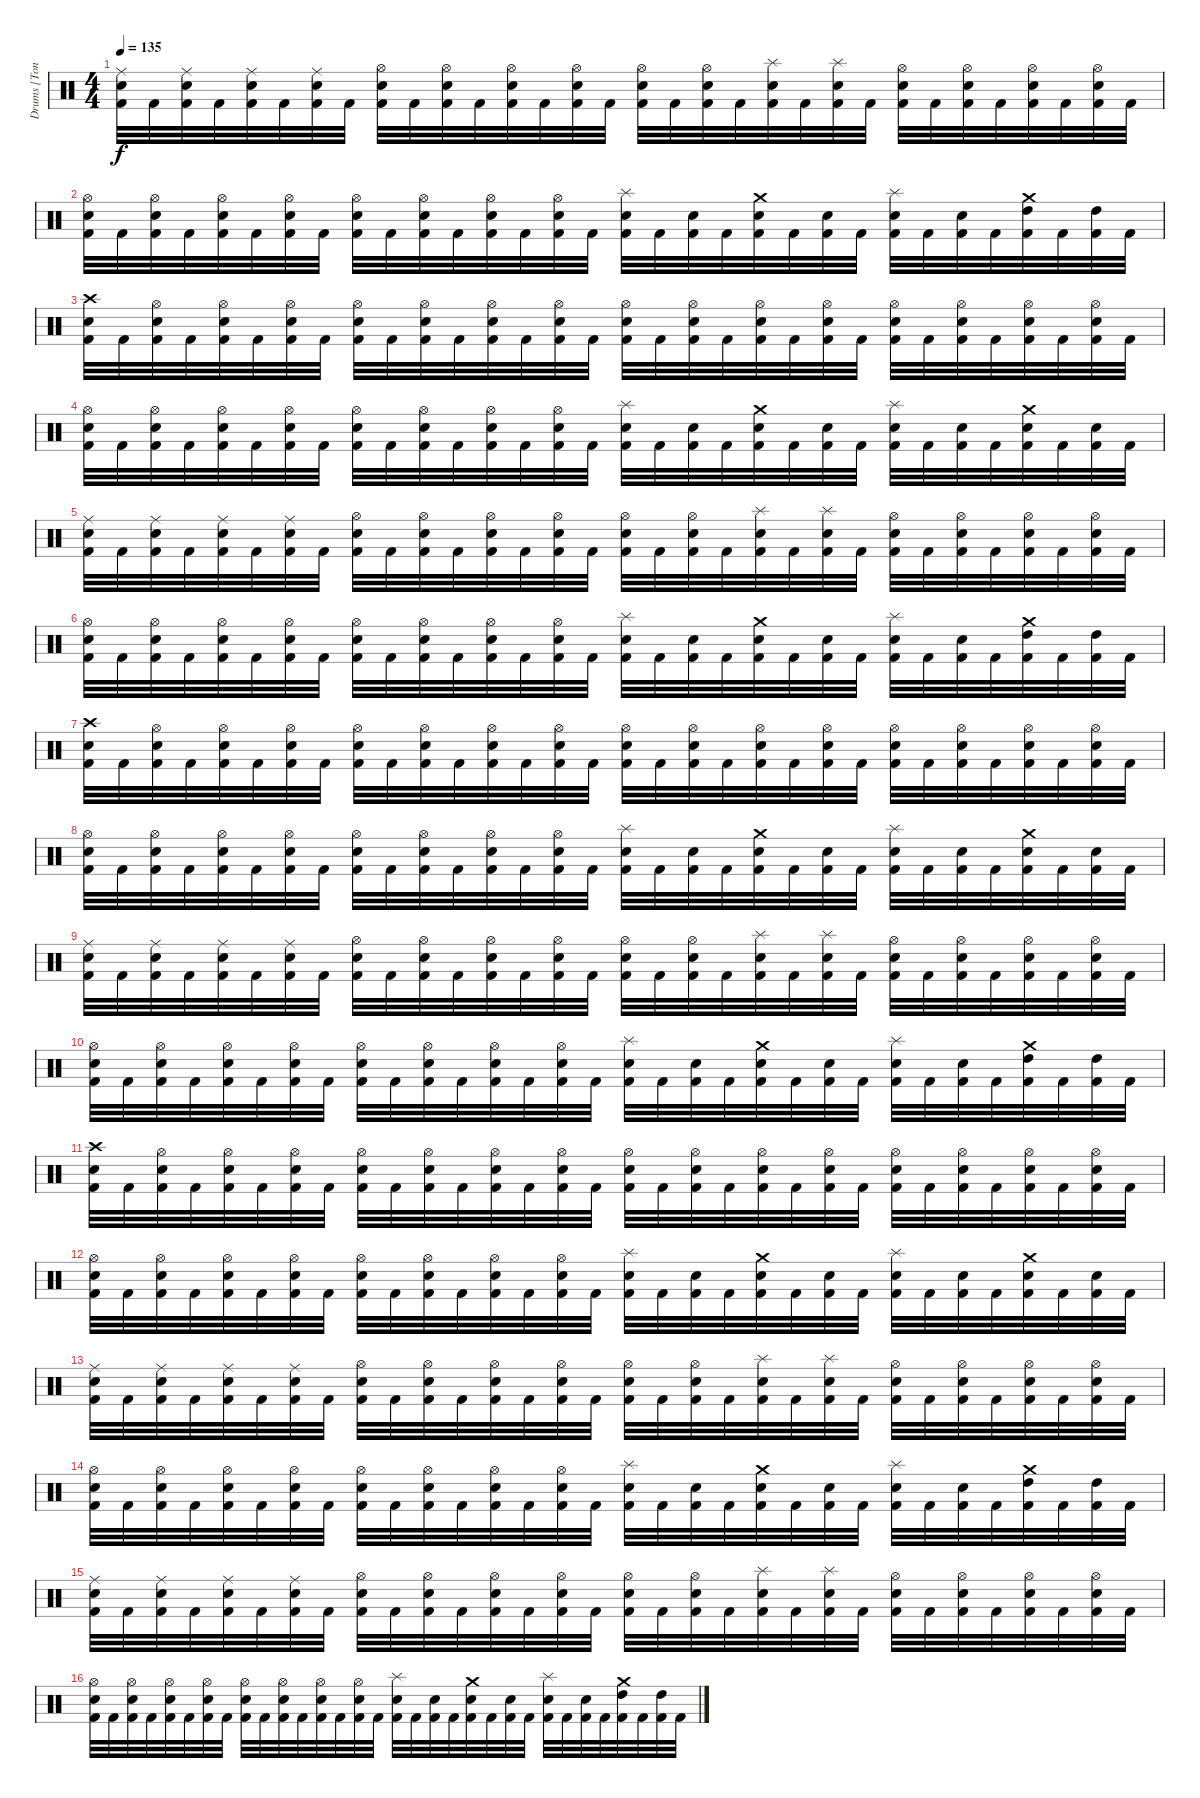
\track ("Drums [Tony Laureano]" "Drums [Ton") {instrument percussion}
\staff {score}
\articulation defaults
\ts (4 4)
\tempo 135
\clef neutral
\ks c
("Ride (middle)" "Electric Snare (hit)" "Kick (hit) 2").32{dy f} "Kick (hit) 2".32 ("Ride (middle)" "Electric Snare (hit)" "Kick (hit) 2").32 "Kick (hit) 2".32 ("Ride (middle)" "Electric Snare (hit)" "Kick (hit) 2").32 "Kick (hit) 2".32 ("Ride (middle)" "Electric Snare (hit)" "Kick (hit) 2").32 "Kick (hit) 2".32 ("Hi-Hat (open)" "Electric Snare (hit)" "Kick (hit) 2").32 "Kick (hit) 2".32 ("Hi-Hat (open)" "Electric Snare (hit)" "Kick (hit) 2").32 "Kick (hit) 2".32 ("Hi-Hat (open)" "Electric Snare (hit)" "Kick (hit) 2").32 "Kick (hit) 2".32 ("Hi-Hat (open)" "Electric Snare (hit)" "Kick (hit) 2").32 "Kick (hit) 2".32 ("Hi-Hat (open)" "Electric Snare (hit)" "Kick (hit) 2").32 "Kick (hit) 2".32 ("Hi-Hat (open)" "Electric Snare (hit)" "Kick (hit) 2").32 "Kick (hit) 2".32 ("Splash (hit)" "Electric Snare (hit)" "Kick (hit) 2").32 "Kick (hit) 2".32 ("Splash (hit)" "Electric Snare (hit)" "Kick (hit) 2").32 "Kick (hit) 2".32 ("Hi-Hat (open)" "Electric Snare (hit)" "Kick (hit) 2").32 "Kick (hit) 2".32 ("Hi-Hat (open)" "Electric Snare (hit)" "Kick (hit) 2").32 "Kick (hit) 2".32 ("Hi-Hat (open)" "Electric Snare (hit)" "Kick (hit) 2").32 "Kick (hit) 2".32 ("Hi-Hat (open)" "Electric Snare (hit)" "Kick (hit) 2").32 "Kick (hit) 2".32 |
("Hi-Hat (open)" "Electric Snare (hit)" "Kick (hit) 2").32 "Kick (hit) 2".32 ("Hi-Hat (open)" "Electric Snare (hit)" "Kick (hit) 2").32 "Kick (hit) 2".32 ("Hi-Hat (open)" "Electric Snare (hit)" "Kick (hit) 2").32 "Kick (hit) 2".32 ("Hi-Hat (open)" "Electric Snare (hit)" "Kick (hit) 2").32 "Kick (hit) 2".32 ("Hi-Hat (open)" "Electric Snare (hit)" "Kick (hit) 2").32 "Kick (hit) 2".32 ("Hi-Hat (open)" "Electric Snare (hit)" "Kick (hit) 2").32 "Kick (hit) 2".32 ("Hi-Hat (open)" "Electric Snare (hit)" "Kick (hit) 2").32 "Kick (hit) 2".32 ("Hi-Hat (open)" "Electric Snare (hit)" "Kick (hit) 2").32 "Kick (hit) 2".32 ("Splash (hit)" "Electric Snare (hit)" "Kick (hit) 2").32 "Kick (hit) 2".32 ("Electric Snare (hit)" "Kick (hit) 2").32 "Kick (hit) 2".32 ("Crash medium (hit)" "Electric Snare (hit)" "Kick (hit) 2").32 "Kick (hit) 2".32 ("Electric Snare (hit)" "Kick (hit) 2").32 "Kick (hit) 2".32 ("Splash (hit)" "Electric Snare (hit)" "Kick (hit) 2").32 "Kick (hit) 2".32 ("Electric Snare (hit)" "Kick (hit) 2").32 "Kick (hit) 2".32 ("Crash medium (hit)" "High Tom (hit)" "Kick (hit) 2").32 "Kick (hit) 2".32 ("High Tom (hit)" "Kick (hit) 2").32 "Kick (hit) 2".32 |
("Crash high (hit)" "Electric Snare (hit)" "Kick (hit) 2").32 "Kick (hit) 2".32 ("Hi-Hat (open)" "Electric Snare (hit)" "Kick (hit) 2").32 "Kick (hit) 2".32 ("Hi-Hat (open)" "Electric Snare (hit)" "Kick (hit) 2").32 "Kick (hit) 2".32 ("Hi-Hat (open)" "Electric Snare (hit)" "Kick (hit) 2").32 "Kick (hit) 2".32 ("Hi-Hat (open)" "Electric Snare (hit)" "Kick (hit) 2").32 "Kick (hit) 2".32 ("Hi-Hat (open)" "Electric Snare (hit)" "Kick (hit) 2").32 "Kick (hit) 2".32 ("Hi-Hat (open)" "Electric Snare (hit)" "Kick (hit) 2").32 "Kick (hit) 2".32 ("Hi-Hat (open)" "Electric Snare (hit)" "Kick (hit) 2").32 "Kick (hit) 2".32 ("Hi-Hat (open)" "Electric Snare (hit)" "Kick (hit) 2").32 "Kick (hit) 2".32 ("Hi-Hat (open)" "Electric Snare (hit)" "Kick (hit) 2").32 "Kick (hit) 2".32 ("Hi-Hat (open)" "Electric Snare (hit)" "Kick (hit) 2").32 "Kick (hit) 2".32 ("Hi-Hat (open)" "Electric Snare (hit)" "Kick (hit) 2").32 "Kick (hit) 2".32 ("Hi-Hat (open)" "Electric Snare (hit)" "Kick (hit) 2").32 "Kick (hit) 2".32 ("Hi-Hat (open)" "Electric Snare (hit)" "Kick (hit) 2").32 "Kick (hit) 2".32 ("Hi-Hat (open)" "Electric Snare (hit)" "Kick (hit) 2").32 "Kick (hit) 2".32 ("Hi-Hat (open)" "Electric Snare (hit)" "Kick (hit) 2").32 "Kick (hit) 2".32 |
("Hi-Hat (open)" "Electric Snare (hit)" "Kick (hit) 2").32 "Kick (hit) 2".32 ("Hi-Hat (open)" "Electric Snare (hit)" "Kick (hit) 2").32 "Kick (hit) 2".32 ("Hi-Hat (open)" "Electric Snare (hit)" "Kick (hit) 2").32 "Kick (hit) 2".32 ("Hi-Hat (open)" "Electric Snare (hit)" "Kick (hit) 2").32 "Kick (hit) 2".32 ("Hi-Hat (open)" "Electric Snare (hit)" "Kick (hit) 2").32 "Kick (hit) 2".32 ("Hi-Hat (open)" "Electric Snare (hit)" "Kick (hit) 2").32 "Kick (hit) 2".32 ("Hi-Hat (open)" "Electric Snare (hit)" "Kick (hit) 2").32 "Kick (hit) 2".32 ("Hi-Hat (open)" "Electric Snare (hit)" "Kick (hit) 2").32 "Kick (hit) 2".32 ("Splash (hit)" "Electric Snare (hit)" "Kick (hit) 2").32 "Kick (hit) 2".32 ("Electric Snare (hit)" "Kick (hit) 2").32 "Kick (hit) 2".32 ("Crash medium (hit)" "Electric Snare (hit)" "Kick (hit) 2").32 "Kick (hit) 2".32 ("Electric Snare (hit)" "Kick (hit) 2").32 "Kick (hit) 2".32 ("Splash (hit)" "Electric Snare (hit)" "Kick (hit) 2").32 "Kick (hit) 2".32 ("Electric Snare (hit)" "Kick (hit) 2").32 "Kick (hit) 2".32 ("Crash medium (hit)" "Electric Snare (hit)" "Kick (hit) 2").32 "Kick (hit) 2".32 ("Electric Snare (hit)" "Kick (hit) 2").32 "Kick (hit) 2".32 |
("Ride (middle)" "Electric Snare (hit)" "Kick (hit) 2").32 "Kick (hit) 2".32 ("Ride (middle)" "Electric Snare (hit)" "Kick (hit) 2").32 "Kick (hit) 2".32 ("Ride (middle)" "Electric Snare (hit)" "Kick (hit) 2").32 "Kick (hit) 2".32 ("Ride (middle)" "Electric Snare (hit)" "Kick (hit) 2").32 "Kick (hit) 2".32 ("Hi-Hat (open)" "Electric Snare (hit)" "Kick (hit) 2").32 "Kick (hit) 2".32 ("Hi-Hat (open)" "Electric Snare (hit)" "Kick (hit) 2").32 "Kick (hit) 2".32 ("Hi-Hat (open)" "Electric Snare (hit)" "Kick (hit) 2").32 "Kick (hit) 2".32 ("Hi-Hat (open)" "Electric Snare (hit)" "Kick (hit) 2").32 "Kick (hit) 2".32 ("Hi-Hat (open)" "Electric Snare (hit)" "Kick (hit) 2").32 "Kick (hit) 2".32 ("Hi-Hat (open)" "Electric Snare (hit)" "Kick (hit) 2").32 "Kick (hit) 2".32 ("Splash (hit)" "Electric Snare (hit)" "Kick (hit) 2").32 "Kick (hit) 2".32 ("Splash (hit)" "Electric Snare (hit)" "Kick (hit) 2").32 "Kick (hit) 2".32 ("Hi-Hat (open)" "Electric Snare (hit)" "Kick (hit) 2").32 "Kick (hit) 2".32 ("Hi-Hat (open)" "Electric Snare (hit)" "Kick (hit) 2").32 "Kick (hit) 2".32 ("Hi-Hat (open)" "Electric Snare (hit)" "Kick (hit) 2").32 "Kick (hit) 2".32 ("Hi-Hat (open)" "Electric Snare (hit)" "Kick (hit) 2").32 "Kick (hit) 2".32 |
("Hi-Hat (open)" "Electric Snare (hit)" "Kick (hit) 2").32 "Kick (hit) 2".32 ("Hi-Hat (open)" "Electric Snare (hit)" "Kick (hit) 2").32 "Kick (hit) 2".32 ("Hi-Hat (open)" "Electric Snare (hit)" "Kick (hit) 2").32 "Kick (hit) 2".32 ("Hi-Hat (open)" "Electric Snare (hit)" "Kick (hit) 2").32 "Kick (hit) 2".32 ("Hi-Hat (open)" "Electric Snare (hit)" "Kick (hit) 2").32 "Kick (hit) 2".32 ("Hi-Hat (open)" "Electric Snare (hit)" "Kick (hit) 2").32 "Kick (hit) 2".32 ("Hi-Hat (open)" "Electric Snare (hit)" "Kick (hit) 2").32 "Kick (hit) 2".32 ("Hi-Hat (open)" "Electric Snare (hit)" "Kick (hit) 2").32 "Kick (hit) 2".32 ("Splash (hit)" "Electric Snare (hit)" "Kick (hit) 2").32 "Kick (hit) 2".32 ("Electric Snare (hit)" "Kick (hit) 2").32 "Kick (hit) 2".32 ("Crash medium (hit)" "Electric Snare (hit)" "Kick (hit) 2").32 "Kick (hit) 2".32 ("Electric Snare (hit)" "Kick (hit) 2").32 "Kick (hit) 2".32 ("Splash (hit)" "Electric Snare (hit)" "Kick (hit) 2").32 "Kick (hit) 2".32 ("Electric Snare (hit)" "Kick (hit) 2").32 "Kick (hit) 2".32 ("Crash medium (hit)" "High Tom (hit)" "Kick (hit) 2").32 "Kick (hit) 2".32 ("High Tom (hit)" "Kick (hit) 2").32 "Kick (hit) 2".32 |
("Crash high (hit)" "Electric Snare (hit)" "Kick (hit) 2").32 "Kick (hit) 2".32 ("Hi-Hat (open)" "Electric Snare (hit)" "Kick (hit) 2").32 "Kick (hit) 2".32 ("Hi-Hat (open)" "Electric Snare (hit)" "Kick (hit) 2").32 "Kick (hit) 2".32 ("Hi-Hat (open)" "Electric Snare (hit)" "Kick (hit) 2").32 "Kick (hit) 2".32 ("Hi-Hat (open)" "Electric Snare (hit)" "Kick (hit) 2").32 "Kick (hit) 2".32 ("Hi-Hat (open)" "Electric Snare (hit)" "Kick (hit) 2").32 "Kick (hit) 2".32 ("Hi-Hat (open)" "Electric Snare (hit)" "Kick (hit) 2").32 "Kick (hit) 2".32 ("Hi-Hat (open)" "Electric Snare (hit)" "Kick (hit) 2").32 "Kick (hit) 2".32 ("Hi-Hat (open)" "Electric Snare (hit)" "Kick (hit) 2").32 "Kick (hit) 2".32 ("Hi-Hat (open)" "Electric Snare (hit)" "Kick (hit) 2").32 "Kick (hit) 2".32 ("Hi-Hat (open)" "Electric Snare (hit)" "Kick (hit) 2").32 "Kick (hit) 2".32 ("Hi-Hat (open)" "Electric Snare (hit)" "Kick (hit) 2").32 "Kick (hit) 2".32 ("Hi-Hat (open)" "Electric Snare (hit)" "Kick (hit) 2").32 "Kick (hit) 2".32 ("Hi-Hat (open)" "Electric Snare (hit)" "Kick (hit) 2").32 "Kick (hit) 2".32 ("Hi-Hat (open)" "Electric Snare (hit)" "Kick (hit) 2").32 "Kick (hit) 2".32 ("Hi-Hat (open)" "Electric Snare (hit)" "Kick (hit) 2").32 "Kick (hit) 2".32 |
("Hi-Hat (open)" "Electric Snare (hit)" "Kick (hit) 2").32 "Kick (hit) 2".32 ("Hi-Hat (open)" "Electric Snare (hit)" "Kick (hit) 2").32 "Kick (hit) 2".32 ("Hi-Hat (open)" "Electric Snare (hit)" "Kick (hit) 2").32 "Kick (hit) 2".32 ("Hi-Hat (open)" "Electric Snare (hit)" "Kick (hit) 2").32 "Kick (hit) 2".32 ("Hi-Hat (open)" "Electric Snare (hit)" "Kick (hit) 2").32 "Kick (hit) 2".32 ("Hi-Hat (open)" "Electric Snare (hit)" "Kick (hit) 2").32 "Kick (hit) 2".32 ("Hi-Hat (open)" "Electric Snare (hit)" "Kick (hit) 2").32 "Kick (hit) 2".32 ("Hi-Hat (open)" "Electric Snare (hit)" "Kick (hit) 2").32 "Kick (hit) 2".32 ("Splash (hit)" "Electric Snare (hit)" "Kick (hit) 2").32 "Kick (hit) 2".32 ("Electric Snare (hit)" "Kick (hit) 2").32 "Kick (hit) 2".32 ("Crash medium (hit)" "Electric Snare (hit)" "Kick (hit) 2").32 "Kick (hit) 2".32 ("Electric Snare (hit)" "Kick (hit) 2").32 "Kick (hit) 2".32 ("Splash (hit)" "Electric Snare (hit)" "Kick (hit) 2").32 "Kick (hit) 2".32 ("Electric Snare (hit)" "Kick (hit) 2").32 "Kick (hit) 2".32 ("Crash medium (hit)" "Electric Snare (hit)" "Kick (hit) 2").32 "Kick (hit) 2".32 ("Electric Snare (hit)" "Kick (hit) 2").32 "Kick (hit) 2".32 |
("Ride (middle)" "Electric Snare (hit)" "Kick (hit) 2").32 "Kick (hit) 2".32 ("Ride (middle)" "Electric Snare (hit)" "Kick (hit) 2").32 "Kick (hit) 2".32 ("Ride (middle)" "Electric Snare (hit)" "Kick (hit) 2").32 "Kick (hit) 2".32 ("Ride (middle)" "Electric Snare (hit)" "Kick (hit) 2").32 "Kick (hit) 2".32 ("Hi-Hat (open)" "Electric Snare (hit)" "Kick (hit) 2").32 "Kick (hit) 2".32 ("Hi-Hat (open)" "Electric Snare (hit)" "Kick (hit) 2").32 "Kick (hit) 2".32 ("Hi-Hat (open)" "Electric Snare (hit)" "Kick (hit) 2").32 "Kick (hit) 2".32 ("Hi-Hat (open)" "Electric Snare (hit)" "Kick (hit) 2").32 "Kick (hit) 2".32 ("Hi-Hat (open)" "Electric Snare (hit)" "Kick (hit) 2").32 "Kick (hit) 2".32 ("Hi-Hat (open)" "Electric Snare (hit)" "Kick (hit) 2").32 "Kick (hit) 2".32 ("Splash (hit)" "Electric Snare (hit)" "Kick (hit) 2").32 "Kick (hit) 2".32 ("Splash (hit)" "Electric Snare (hit)" "Kick (hit) 2").32 "Kick (hit) 2".32 ("Hi-Hat (open)" "Electric Snare (hit)" "Kick (hit) 2").32 "Kick (hit) 2".32 ("Hi-Hat (open)" "Electric Snare (hit)" "Kick (hit) 2").32 "Kick (hit) 2".32 ("Hi-Hat (open)" "Electric Snare (hit)" "Kick (hit) 2").32 "Kick (hit) 2".32 ("Hi-Hat (open)" "Electric Snare (hit)" "Kick (hit) 2").32 "Kick (hit) 2".32 |
("Hi-Hat (open)" "Electric Snare (hit)" "Kick (hit) 2").32 "Kick (hit) 2".32 ("Hi-Hat (open)" "Electric Snare (hit)" "Kick (hit) 2").32 "Kick (hit) 2".32 ("Hi-Hat (open)" "Electric Snare (hit)" "Kick (hit) 2").32 "Kick (hit) 2".32 ("Hi-Hat (open)" "Electric Snare (hit)" "Kick (hit) 2").32 "Kick (hit) 2".32 ("Hi-Hat (open)" "Electric Snare (hit)" "Kick (hit) 2").32 "Kick (hit) 2".32 ("Hi-Hat (open)" "Electric Snare (hit)" "Kick (hit) 2").32 "Kick (hit) 2".32 ("Hi-Hat (open)" "Electric Snare (hit)" "Kick (hit) 2").32 "Kick (hit) 2".32 ("Hi-Hat (open)" "Electric Snare (hit)" "Kick (hit) 2").32 "Kick (hit) 2".32 ("Splash (hit)" "Electric Snare (hit)" "Kick (hit) 2").32 "Kick (hit) 2".32 ("Electric Snare (hit)" "Kick (hit) 2").32 "Kick (hit) 2".32 ("Crash medium (hit)" "Electric Snare (hit)" "Kick (hit) 2").32 "Kick (hit) 2".32 ("Electric Snare (hit)" "Kick (hit) 2").32 "Kick (hit) 2".32 ("Splash (hit)" "Electric Snare (hit)" "Kick (hit) 2").32 "Kick (hit) 2".32 ("Electric Snare (hit)" "Kick (hit) 2").32 "Kick (hit) 2".32 ("Crash medium (hit)" "High Tom (hit)" "Kick (hit) 2").32 "Kick (hit) 2".32 ("High Tom (hit)" "Kick (hit) 2").32 "Kick (hit) 2".32 |
("Crash high (hit)" "Electric Snare (hit)" "Kick (hit) 2").32 "Kick (hit) 2".32 ("Hi-Hat (open)" "Electric Snare (hit)" "Kick (hit) 2").32 "Kick (hit) 2".32 ("Hi-Hat (open)" "Electric Snare (hit)" "Kick (hit) 2").32 "Kick (hit) 2".32 ("Hi-Hat (open)" "Electric Snare (hit)" "Kick (hit) 2").32 "Kick (hit) 2".32 ("Hi-Hat (open)" "Electric Snare (hit)" "Kick (hit) 2").32 "Kick (hit) 2".32 ("Hi-Hat (open)" "Electric Snare (hit)" "Kick (hit) 2").32 "Kick (hit) 2".32 ("Hi-Hat (open)" "Electric Snare (hit)" "Kick (hit) 2").32 "Kick (hit) 2".32 ("Hi-Hat (open)" "Electric Snare (hit)" "Kick (hit) 2").32 "Kick (hit) 2".32 ("Hi-Hat (open)" "Electric Snare (hit)" "Kick (hit) 2").32 "Kick (hit) 2".32 ("Hi-Hat (open)" "Electric Snare (hit)" "Kick (hit) 2").32 "Kick (hit) 2".32 ("Hi-Hat (open)" "Electric Snare (hit)" "Kick (hit) 2").32 "Kick (hit) 2".32 ("Hi-Hat (open)" "Electric Snare (hit)" "Kick (hit) 2").32 "Kick (hit) 2".32 ("Hi-Hat (open)" "Electric Snare (hit)" "Kick (hit) 2").32 "Kick (hit) 2".32 ("Hi-Hat (open)" "Electric Snare (hit)" "Kick (hit) 2").32 "Kick (hit) 2".32 ("Hi-Hat (open)" "Electric Snare (hit)" "Kick (hit) 2").32 "Kick (hit) 2".32 ("Hi-Hat (open)" "Electric Snare (hit)" "Kick (hit) 2").32 "Kick (hit) 2".32 |
("Hi-Hat (open)" "Electric Snare (hit)" "Kick (hit) 2").32 "Kick (hit) 2".32 ("Hi-Hat (open)" "Electric Snare (hit)" "Kick (hit) 2").32 "Kick (hit) 2".32 ("Hi-Hat (open)" "Electric Snare (hit)" "Kick (hit) 2").32 "Kick (hit) 2".32 ("Hi-Hat (open)" "Electric Snare (hit)" "Kick (hit) 2").32 "Kick (hit) 2".32 ("Hi-Hat (open)" "Electric Snare (hit)" "Kick (hit) 2").32 "Kick (hit) 2".32 ("Hi-Hat (open)" "Electric Snare (hit)" "Kick (hit) 2").32 "Kick (hit) 2".32 ("Hi-Hat (open)" "Electric Snare (hit)" "Kick (hit) 2").32 "Kick (hit) 2".32 ("Hi-Hat (open)" "Electric Snare (hit)" "Kick (hit) 2").32 "Kick (hit) 2".32 ("Splash (hit)" "Electric Snare (hit)" "Kick (hit) 2").32 "Kick (hit) 2".32 ("Electric Snare (hit)" "Kick (hit) 2").32 "Kick (hit) 2".32 ("Crash medium (hit)" "Electric Snare (hit)" "Kick (hit) 2").32 "Kick (hit) 2".32 ("Electric Snare (hit)" "Kick (hit) 2").32 "Kick (hit) 2".32 ("Splash (hit)" "Electric Snare (hit)" "Kick (hit) 2").32 "Kick (hit) 2".32 ("Electric Snare (hit)" "Kick (hit) 2").32 "Kick (hit) 2".32 ("Crash medium (hit)" "Electric Snare (hit)" "Kick (hit) 2").32 "Kick (hit) 2".32 ("Electric Snare (hit)" "Kick (hit) 2").32 "Kick (hit) 2".32 |
("Ride (middle)" "Electric Snare (hit)" "Kick (hit) 2").32 "Kick (hit) 2".32 ("Ride (middle)" "Electric Snare (hit)" "Kick (hit) 2").32 "Kick (hit) 2".32 ("Ride (middle)" "Electric Snare (hit)" "Kick (hit) 2").32 "Kick (hit) 2".32 ("Ride (middle)" "Electric Snare (hit)" "Kick (hit) 2").32 "Kick (hit) 2".32 ("Hi-Hat (open)" "Electric Snare (hit)" "Kick (hit) 2").32 "Kick (hit) 2".32 ("Hi-Hat (open)" "Electric Snare (hit)" "Kick (hit) 2").32 "Kick (hit) 2".32 ("Hi-Hat (open)" "Electric Snare (hit)" "Kick (hit) 2").32 "Kick (hit) 2".32 ("Hi-Hat (open)" "Electric Snare (hit)" "Kick (hit) 2").32 "Kick (hit) 2".32 ("Hi-Hat (open)" "Electric Snare (hit)" "Kick (hit) 2").32 "Kick (hit) 2".32 ("Hi-Hat (open)" "Electric Snare (hit)" "Kick (hit) 2").32 "Kick (hit) 2".32 ("Splash (hit)" "Electric Snare (hit)" "Kick (hit) 2").32 "Kick (hit) 2".32 ("Splash (hit)" "Electric Snare (hit)" "Kick (hit) 2").32 "Kick (hit) 2".32 ("Hi-Hat (open)" "Electric Snare (hit)" "Kick (hit) 2").32 "Kick (hit) 2".32 ("Hi-Hat (open)" "Electric Snare (hit)" "Kick (hit) 2").32 "Kick (hit) 2".32 ("Hi-Hat (open)" "Electric Snare (hit)" "Kick (hit) 2").32 "Kick (hit) 2".32 ("Hi-Hat (open)" "Electric Snare (hit)" "Kick (hit) 2").32 "Kick (hit) 2".32 |
("Hi-Hat (open)" "Electric Snare (hit)" "Kick (hit) 2").32 "Kick (hit) 2".32 ("Hi-Hat (open)" "Electric Snare (hit)" "Kick (hit) 2").32 "Kick (hit) 2".32 ("Hi-Hat (open)" "Electric Snare (hit)" "Kick (hit) 2").32 "Kick (hit) 2".32 ("Hi-Hat (open)" "Electric Snare (hit)" "Kick (hit) 2").32 "Kick (hit) 2".32 ("Hi-Hat (open)" "Electric Snare (hit)" "Kick (hit) 2").32 "Kick (hit) 2".32 ("Hi-Hat (open)" "Electric Snare (hit)" "Kick (hit) 2").32 "Kick (hit) 2".32 ("Hi-Hat (open)" "Electric Snare (hit)" "Kick (hit) 2").32 "Kick (hit) 2".32 ("Hi-Hat (open)" "Electric Snare (hit)" "Kick (hit) 2").32 "Kick (hit) 2".32 ("Splash (hit)" "Electric Snare (hit)" "Kick (hit) 2").32 "Kick (hit) 2".32 ("Electric Snare (hit)" "Kick (hit) 2").32 "Kick (hit) 2".32 ("Crash medium (hit)" "Electric Snare (hit)" "Kick (hit) 2").32 "Kick (hit) 2".32 ("Electric Snare (hit)" "Kick (hit) 2").32 "Kick (hit) 2".32 ("Splash (hit)" "Electric Snare (hit)" "Kick (hit) 2").32 "Kick (hit) 2".32 ("Electric Snare (hit)" "Kick (hit) 2").32 "Kick (hit) 2".32 ("Crash medium (hit)" "High Tom (hit)" "Kick (hit) 2").32 "Kick (hit) 2".32 ("High Tom (hit)" "Kick (hit) 2").32 "Kick (hit) 2".32 |
("Ride (middle)" "Electric Snare (hit)" "Kick (hit) 2").32 "Kick (hit) 2".32 ("Ride (middle)" "Electric Snare (hit)" "Kick (hit) 2").32 "Kick (hit) 2".32 ("Ride (middle)" "Electric Snare (hit)" "Kick (hit) 2").32 "Kick (hit) 2".32 ("Ride (middle)" "Electric Snare (hit)" "Kick (hit) 2").32 "Kick (hit) 2".32 ("Hi-Hat (open)" "Electric Snare (hit)" "Kick (hit) 2").32 "Kick (hit) 2".32 ("Hi-Hat (open)" "Electric Snare (hit)" "Kick (hit) 2").32 "Kick (hit) 2".32 ("Hi-Hat (open)" "Electric Snare (hit)" "Kick (hit) 2").32 "Kick (hit) 2".32 ("Hi-Hat (open)" "Electric Snare (hit)" "Kick (hit) 2").32 "Kick (hit) 2".32 ("Hi-Hat (open)" "Electric Snare (hit)" "Kick (hit) 2").32 "Kick (hit) 2".32 ("Hi-Hat (open)" "Electric Snare (hit)" "Kick (hit) 2").32 "Kick (hit) 2".32 ("Splash (hit)" "Electric Snare (hit)" "Kick (hit) 2").32 "Kick (hit) 2".32 ("Splash (hit)" "Electric Snare (hit)" "Kick (hit) 2").32 "Kick (hit) 2".32 ("Hi-Hat (open)" "Electric Snare (hit)" "Kick (hit) 2").32 "Kick (hit) 2".32 ("Hi-Hat (open)" "Electric Snare (hit)" "Kick (hit) 2").32 "Kick (hit) 2".32 ("Hi-Hat (open)" "Electric Snare (hit)" "Kick (hit) 2").32 "Kick (hit) 2".32 ("Hi-Hat (open)" "Electric Snare (hit)" "Kick (hit) 2").32 "Kick (hit) 2".32 |
("Hi-Hat (open)" "Electric Snare (hit)" "Kick (hit) 2").32 "Kick (hit) 2".32 ("Hi-Hat (open)" "Electric Snare (hit)" "Kick (hit) 2").32 "Kick (hit) 2".32 ("Hi-Hat (open)" "Electric Snare (hit)" "Kick (hit) 2").32 "Kick (hit) 2".32 ("Hi-Hat (open)" "Electric Snare (hit)" "Kick (hit) 2").32 "Kick (hit) 2".32 ("Hi-Hat (open)" "Electric Snare (hit)" "Kick (hit) 2").32 "Kick (hit) 2".32 ("Hi-Hat (open)" "Electric Snare (hit)" "Kick (hit) 2").32 "Kick (hit) 2".32 ("Hi-Hat (open)" "Electric Snare (hit)" "Kick (hit) 2").32 "Kick (hit) 2".32 ("Hi-Hat (open)" "Electric Snare (hit)" "Kick (hit) 2").32 "Kick (hit) 2".32 ("Splash (hit)" "Electric Snare (hit)" "Kick (hit) 2").32 "Kick (hit) 2".32 ("Electric Snare (hit)" "Kick (hit) 2").32 "Kick (hit) 2".32 ("Crash medium (hit)" "Electric Snare (hit)" "Kick (hit) 2").32 "Kick (hit) 2".32 ("Electric Snare (hit)" "Kick (hit) 2").32 "Kick (hit) 2".32 ("Splash (hit)" "Electric Snare (hit)" "Kick (hit) 2").32 "Kick (hit) 2".32 ("Electric Snare (hit)" "Kick (hit) 2").32 "Kick (hit) 2".32 ("Crash medium (hit)" "High Tom (hit)" "Kick (hit) 2").32 "Kick (hit) 2".32 ("High Tom (hit)" "Kick (hit) 2").32 "Kick (hit) 2".32
